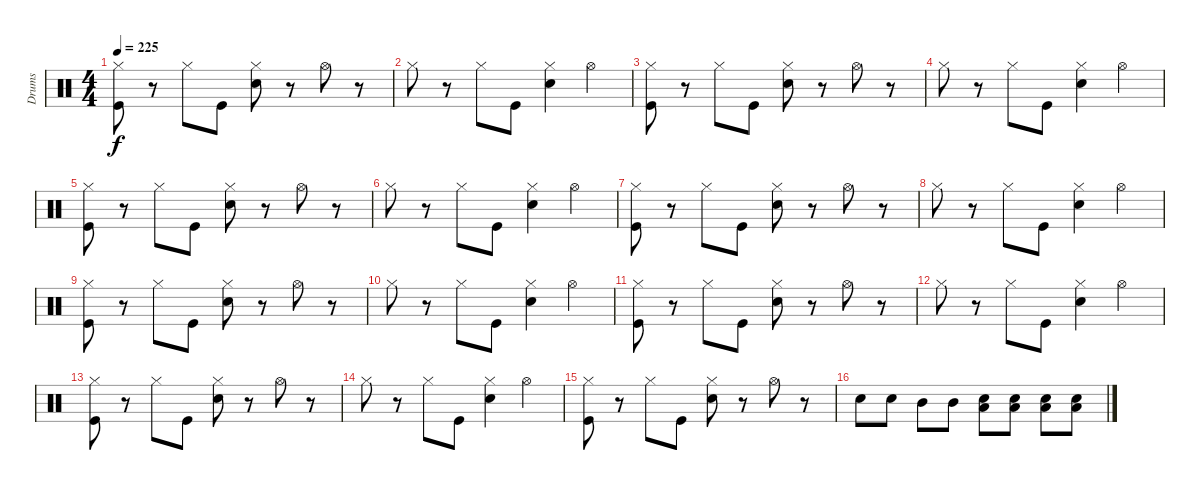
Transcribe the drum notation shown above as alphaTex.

\track ("Drums" "Drums") {instrument percussion}
\staff {score}
\articulation defaults
\ts (4 4)
\tempo 225
\clef neutral
\ks c
("Kick (hit)" "Hi-Hat (closed)").8{dy f} r.8 "Hi-Hat (closed)".8 "Kick (hit)".8 ("Electric Snare (hit)" "Hi-Hat (closed)").8 r.8 "Hi-Hat (open)".8 r.8 |
"Hi-Hat (closed)".8 r.8 "Hi-Hat (closed)".8 "Kick (hit)".8 ("Electric Snare (hit)" "Hi-Hat (closed)").4 "Hi-Hat (open)".4 |
("Kick (hit)" "Hi-Hat (closed)").8 r.8 "Hi-Hat (closed)".8 "Kick (hit)".8 ("Electric Snare (hit)" "Hi-Hat (closed)").8 r.8 "Hi-Hat (open)".8 r.8 |
"Hi-Hat (closed)".8 r.8 "Hi-Hat (closed)".8 "Kick (hit)".8 ("Electric Snare (hit)" "Hi-Hat (closed)").4 "Hi-Hat (open)".4 |
("Kick (hit)" "Hi-Hat (closed)").8 r.8 "Hi-Hat (closed)".8 "Kick (hit)".8 ("Electric Snare (hit)" "Hi-Hat (closed)").8 r.8 "Hi-Hat (open)".8 r.8 |
"Hi-Hat (closed)".8 r.8 "Hi-Hat (closed)".8 "Kick (hit)".8 ("Electric Snare (hit)" "Hi-Hat (closed)").4 "Hi-Hat (open)".4 |
("Kick (hit)" "Hi-Hat (closed)").8 r.8 "Hi-Hat (closed)".8 "Kick (hit)".8 ("Electric Snare (hit)" "Hi-Hat (closed)").8 r.8 "Hi-Hat (open)".8 r.8 |
"Hi-Hat (closed)".8 r.8 "Hi-Hat (closed)".8 "Kick (hit)".8 ("Electric Snare (hit)" "Hi-Hat (closed)").4 "Hi-Hat (open)".4 |
("Kick (hit)" "Hi-Hat (closed)").8 r.8 "Hi-Hat (closed)".8 "Kick (hit)".8 ("Electric Snare (hit)" "Hi-Hat (closed)").8 r.8 "Hi-Hat (open)".8 r.8 |
"Hi-Hat (closed)".8 r.8 "Hi-Hat (closed)".8 "Kick (hit)".8 ("Electric Snare (hit)" "Hi-Hat (closed)").4 "Hi-Hat (open)".4 |
("Kick (hit)" "Hi-Hat (closed)").8 r.8 "Hi-Hat (closed)".8 "Kick (hit)".8 ("Electric Snare (hit)" "Hi-Hat (closed)").8 r.8 "Hi-Hat (open)".8 r.8 |
"Hi-Hat (closed)".8 r.8 "Hi-Hat (closed)".8 "Kick (hit)".8 ("Electric Snare (hit)" "Hi-Hat (closed)").4 "Hi-Hat (open)".4 |
("Kick (hit)" "Hi-Hat (closed)").8 r.8 "Hi-Hat (closed)".8 "Kick (hit)".8 ("Electric Snare (hit)" "Hi-Hat (closed)").8 r.8 "Hi-Hat (open)".8 r.8 |
"Hi-Hat (closed)".8 r.8 "Hi-Hat (closed)".8 "Kick (hit)".8 ("Electric Snare (hit)" "Hi-Hat (closed)").4 "Hi-Hat (open)".4 |
("Kick (hit)" "Hi-Hat (closed)").8 r.8 "Hi-Hat (closed)".8 "Kick (hit)".8 ("Electric Snare (hit)" "Hi-Hat (closed)").8 r.8 "Hi-Hat (open)".8 r.8 |
"Electric Snare (hit)".8 "Electric Snare (hit)".8 "Mid Tom (hit)".8 "Mid Tom (hit)".8 ("Electric Snare (hit)" "Low Floor Tom (hit)").8 ("Electric Snare (hit)" "Low Floor Tom (hit)").8 ("Electric Snare (hit)" "Low Floor Tom (hit)").8 ("Electric Snare (hit)" "Low Floor Tom (hit)").8
